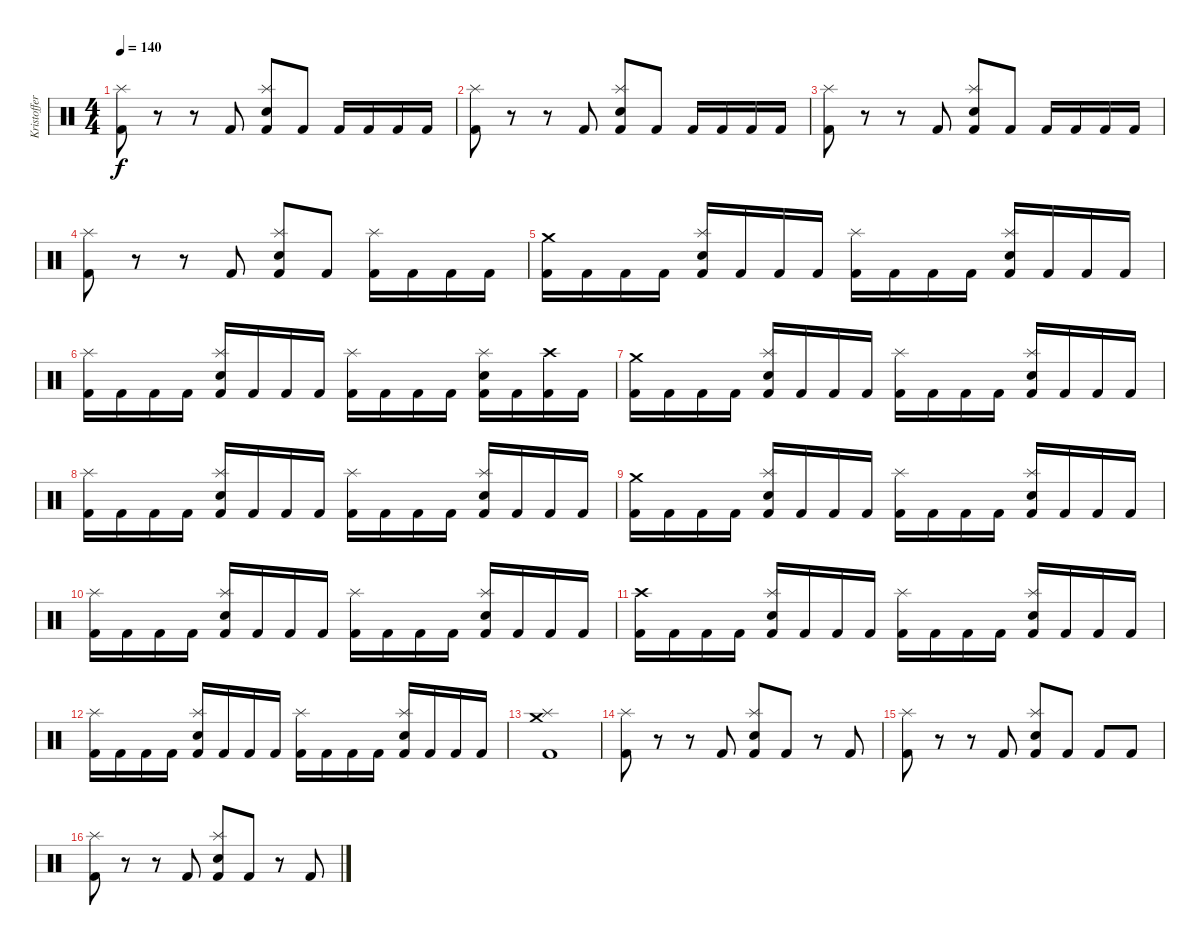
\track ("Kristoffer (Drums)" "Kristoffer") {instrument percussion}
\staff {score}
\articulation defaults
\ts (4 4)
\tempo 140
\clef neutral
\ks c
("Kick (hit) 2" "Splash (hit)").8{dy f} r.8 r.8 "Kick (hit) 2".8 ("Kick (hit) 2" "Electric Snare (hit)" "Splash (hit)").8 "Kick (hit) 2".8 "Kick (hit) 2".16 "Kick (hit) 2".16 "Kick (hit) 2".16 "Kick (hit) 2".16 |
("Kick (hit) 2" "Splash (hit)").8 r.8 r.8 "Kick (hit) 2".8 ("Kick (hit) 2" "Electric Snare (hit)" "Splash (hit)").8 "Kick (hit) 2".8 "Kick (hit) 2".16 "Kick (hit) 2".16 "Kick (hit) 2".16 "Kick (hit) 2".16 |
("Kick (hit) 2" "Splash (hit)").8 r.8 r.8 "Kick (hit) 2".8 ("Kick (hit) 2" "Electric Snare (hit)" "Splash (hit)").8 "Kick (hit) 2".8 "Kick (hit) 2".16 "Kick (hit) 2".16 "Kick (hit) 2".16 "Kick (hit) 2".16 |
("Kick (hit) 2" "Splash (hit)").8 r.8 r.8 "Kick (hit) 2".8 ("Kick (hit) 2" "Electric Snare (hit)" "Splash (hit)").8 "Kick (hit) 2".8 ("Kick (hit) 2" "Splash (hit)").16 "Kick (hit) 2".16 "Kick (hit) 2".16 "Kick (hit) 2".16 |
("Kick (hit) 2" "Crash medium (hit)").16 "Kick (hit) 2".16 "Kick (hit) 2".16 "Kick (hit) 2".16 ("Kick (hit) 2" "Electric Snare (hit)" "Splash (hit)").16 "Kick (hit) 2".16 "Kick (hit) 2".16 "Kick (hit) 2".16 ("Kick (hit) 2" "Splash (hit)").16 "Kick (hit) 2".16 "Kick (hit) 2".16 "Kick (hit) 2".16 ("Kick (hit) 2" "Electric Snare (hit)" "Splash (hit)").16 "Kick (hit) 2".16 "Kick (hit) 2".16 "Kick (hit) 2".16 |
("Kick (hit) 2" "Splash (hit)").16 "Kick (hit) 2".16 "Kick (hit) 2".16 "Kick (hit) 2".16 ("Kick (hit) 2" "Electric Snare (hit)" "Splash (hit)").16 "Kick (hit) 2".16 "Kick (hit) 2".16 "Kick (hit) 2".16 ("Kick (hit) 2" "Splash (hit)").16 "Kick (hit) 2".16 "Kick (hit) 2".16 "Kick (hit) 2".16 ("Kick (hit) 2" "Electric Snare (hit)" "Splash (hit)").16 "Kick (hit) 2".16 ("Kick (hit) 2" "Crash high (hit)").16 "Kick (hit) 2".16 |
("Kick (hit) 2" "Crash medium (hit)").16 "Kick (hit) 2".16 "Kick (hit) 2".16 "Kick (hit) 2".16 ("Kick (hit) 2" "Electric Snare (hit)" "Splash (hit)").16 "Kick (hit) 2".16 "Kick (hit) 2".16 "Kick (hit) 2".16 ("Kick (hit) 2" "Splash (hit)").16 "Kick (hit) 2".16 "Kick (hit) 2".16 "Kick (hit) 2".16 ("Kick (hit) 2" "Electric Snare (hit)" "Splash (hit)").16 "Kick (hit) 2".16 "Kick (hit) 2".16 "Kick (hit) 2".16 |
("Kick (hit) 2" "Splash (hit)").16 "Kick (hit) 2".16 "Kick (hit) 2".16 "Kick (hit) 2".16 ("Kick (hit) 2" "Electric Snare (hit)" "Splash (hit)").16 "Kick (hit) 2".16 "Kick (hit) 2".16 "Kick (hit) 2".16 ("Kick (hit) 2" "Splash (hit)").16 "Kick (hit) 2".16 "Kick (hit) 2".16 "Kick (hit) 2".16 ("Kick (hit) 2" "Electric Snare (hit)" "Splash (hit)").16 "Kick (hit) 2".16 "Kick (hit) 2".16 "Kick (hit) 2".16 |
("Kick (hit) 2" "Crash medium (hit)").16 "Kick (hit) 2".16 "Kick (hit) 2".16 "Kick (hit) 2".16 ("Kick (hit) 2" "Electric Snare (hit)" "Splash (hit)").16 "Kick (hit) 2".16 "Kick (hit) 2".16 "Kick (hit) 2".16 ("Kick (hit) 2" "Splash (hit)").16 "Kick (hit) 2".16 "Kick (hit) 2".16 "Kick (hit) 2".16 ("Kick (hit) 2" "Electric Snare (hit)" "Splash (hit)").16 "Kick (hit) 2".16 "Kick (hit) 2".16 "Kick (hit) 2".16 |
("Kick (hit) 2" "Splash (hit)").16 "Kick (hit) 2".16 "Kick (hit) 2".16 "Kick (hit) 2".16 ("Kick (hit) 2" "Electric Snare (hit)" "Splash (hit)").16 "Kick (hit) 2".16 "Kick (hit) 2".16 "Kick (hit) 2".16 ("Kick (hit) 2" "Splash (hit)").16 "Kick (hit) 2".16 "Kick (hit) 2".16 "Kick (hit) 2".16 ("Kick (hit) 2" "Electric Snare (hit)" "Splash (hit)").16 "Kick (hit) 2".16 "Kick (hit) 2".16 "Kick (hit) 2".16 |
("Kick (hit) 2" "Crash high (hit)").16 "Kick (hit) 2".16 "Kick (hit) 2".16 "Kick (hit) 2".16 ("Kick (hit) 2" "Electric Snare (hit)" "Splash (hit)").16 "Kick (hit) 2".16 "Kick (hit) 2".16 "Kick (hit) 2".16 ("Kick (hit) 2" "Splash (hit)").16 "Kick (hit) 2".16 "Kick (hit) 2".16 "Kick (hit) 2".16 ("Kick (hit) 2" "Electric Snare (hit)" "Splash (hit)").16 "Kick (hit) 2".16 "Kick (hit) 2".16 "Kick (hit) 2".16 |
("Kick (hit) 2" "Splash (hit)").16 "Kick (hit) 2".16 "Kick (hit) 2".16 "Kick (hit) 2".16 ("Kick (hit) 2" "Electric Snare (hit)" "Splash (hit)").16 "Kick (hit) 2".16 "Kick (hit) 2".16 "Kick (hit) 2".16 ("Kick (hit) 2" "Splash (hit)").16 "Kick (hit) 2".16 "Kick (hit) 2".16 "Kick (hit) 2".16 ("Kick (hit) 2" "Electric Snare (hit)" "Splash (hit)").16 "Kick (hit) 2".16 "Kick (hit) 2".16 "Kick (hit) 2".16 |
("Kick (hit) 2" "Splash (hit)" "Crash medium (hit)").1 |
("Kick (hit) 2" "Splash (hit)").8 r.8 r.8 "Kick (hit) 2".8 ("Kick (hit) 2" "Electric Snare (hit)" "Splash (hit)").8 "Kick (hit) 2".8 r.8 "Kick (hit) 2".8 |
("Kick (hit) 2" "Splash (hit)").8 r.8 r.8 "Kick (hit) 2".8 ("Kick (hit) 2" "Electric Snare (hit)" "Splash (hit)").8 "Kick (hit) 2".8 "Kick (hit) 2".8 "Kick (hit) 2".8 |
("Kick (hit) 2" "Splash (hit)").8 r.8 r.8 "Kick (hit) 2".8 ("Kick (hit) 2" "Electric Snare (hit)" "Splash (hit)").8 "Kick (hit) 2".8 r.8 "Kick (hit) 2".8
